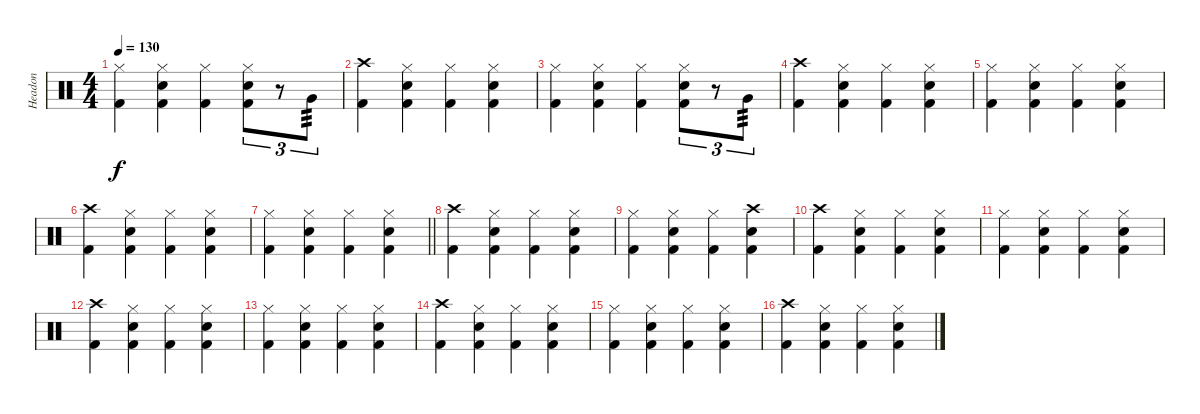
\track ("Headon" "Headon") {instrument percussion}
\staff {score}
\articulation defaults
\ts (4 4)
\tempo 130
\clef neutral
\ks c
("Hi-Hat (closed)" "Kick (hit) 2").4{dy f} ("Hi-Hat (closed)" "Snare (hit) 2" "Kick (hit) 2").4 ("Hi-Hat (closed)" "Kick (hit) 2").4 ("Hi-Hat (closed)" "Snare (hit) 2" "Kick (hit) 2").8{tu (3 2)} r.8{tu (3 2)} "Very Low Tom (hit)".8{tu (3 2) tp 3} |
("Crash high (hit)" "Kick (hit) 2").4 ("Hi-Hat (closed)" "Snare (hit) 2" "Kick (hit) 2").4 ("Hi-Hat (closed)" "Kick (hit) 2").4 ("Hi-Hat (closed)" "Snare (hit) 2" "Kick (hit) 2").4 |
("Hi-Hat (closed)" "Kick (hit) 2").4 ("Hi-Hat (closed)" "Snare (hit) 2" "Kick (hit) 2").4 ("Hi-Hat (closed)" "Kick (hit) 2").4 ("Hi-Hat (closed)" "Snare (hit) 2" "Kick (hit) 2").8{tu (3 2)} r.8{tu (3 2)} "Very Low Tom (hit)".8{tu (3 2) tp 3} |
("Crash high (hit)" "Kick (hit) 2").4 ("Hi-Hat (closed)" "Snare (hit) 2" "Kick (hit) 2").4 ("Hi-Hat (closed)" "Kick (hit) 2").4 ("Hi-Hat (closed)" "Snare (hit) 2" "Kick (hit) 2").4 |
("Hi-Hat (closed)" "Kick (hit) 2").4 ("Hi-Hat (closed)" "Snare (hit) 2" "Kick (hit) 2").4 ("Hi-Hat (closed)" "Kick (hit) 2").4 ("Hi-Hat (closed)" "Snare (hit) 2" "Kick (hit) 2").4 |
("Crash high (hit)" "Kick (hit) 2").4 ("Hi-Hat (closed)" "Snare (hit) 2" "Kick (hit) 2").4 ("Hi-Hat (closed)" "Kick (hit) 2").4 ("Hi-Hat (closed)" "Snare (hit) 2" "Kick (hit) 2").4 |
\barLineRight lightlight
("Hi-Hat (closed)" "Kick (hit) 2").4 ("Hi-Hat (closed)" "Snare (hit) 2" "Kick (hit) 2").4 ("Hi-Hat (closed)" "Kick (hit) 2").4 ("Hi-Hat (closed)" "Snare (hit) 2" "Kick (hit) 2").4 |
("Crash high (hit)" "Kick (hit) 2").4 ("Hi-Hat (closed)" "Snare (hit) 2" "Kick (hit) 2").4 ("Hi-Hat (closed)" "Kick (hit) 2").4 ("Hi-Hat (closed)" "Snare (hit) 2" "Kick (hit) 2").4 |
("Hi-Hat (closed)" "Kick (hit) 2").4 ("Hi-Hat (closed)" "Snare (hit) 2" "Kick (hit) 2").4 ("Hi-Hat (closed)" "Kick (hit) 2").4 ("Crash high (hit)" "Snare (hit) 2" "Kick (hit) 2").4 |
("Crash high (hit)" "Kick (hit) 2").4 ("Hi-Hat (closed)" "Snare (hit) 2" "Kick (hit) 2").4 ("Hi-Hat (closed)" "Kick (hit) 2").4 ("Hi-Hat (closed)" "Snare (hit) 2" "Kick (hit) 2").4 |
("Hi-Hat (closed)" "Kick (hit) 2").4 ("Hi-Hat (closed)" "Snare (hit) 2" "Kick (hit) 2").4 ("Hi-Hat (closed)" "Kick (hit) 2").4 ("Hi-Hat (closed)" "Snare (hit) 2" "Kick (hit) 2").4 |
("Crash high (hit)" "Kick (hit) 2").4 ("Hi-Hat (closed)" "Snare (hit) 2" "Kick (hit) 2").4 ("Hi-Hat (closed)" "Kick (hit) 2").4 ("Hi-Hat (closed)" "Snare (hit) 2" "Kick (hit) 2").4 |
("Hi-Hat (closed)" "Kick (hit) 2").4 ("Hi-Hat (closed)" "Snare (hit) 2" "Kick (hit) 2").4 ("Hi-Hat (closed)" "Kick (hit) 2").4 ("Hi-Hat (closed)" "Snare (hit) 2" "Kick (hit) 2").4 |
("Crash high (hit)" "Kick (hit) 2").4 ("Hi-Hat (closed)" "Snare (hit) 2" "Kick (hit) 2").4 ("Hi-Hat (closed)" "Kick (hit) 2").4 ("Hi-Hat (closed)" "Snare (hit) 2" "Kick (hit) 2").4 |
("Hi-Hat (closed)" "Kick (hit) 2").4 ("Hi-Hat (closed)" "Snare (hit) 2" "Kick (hit) 2").4 ("Hi-Hat (closed)" "Kick (hit) 2").4 ("Hi-Hat (closed)" "Snare (hit) 2" "Kick (hit) 2").4 |
("Crash high (hit)" "Kick (hit) 2").4 ("Hi-Hat (closed)" "Snare (hit) 2" "Kick (hit) 2").4 ("Hi-Hat (closed)" "Kick (hit) 2").4 ("Hi-Hat (closed)" "Snare (hit) 2" "Kick (hit) 2").4
